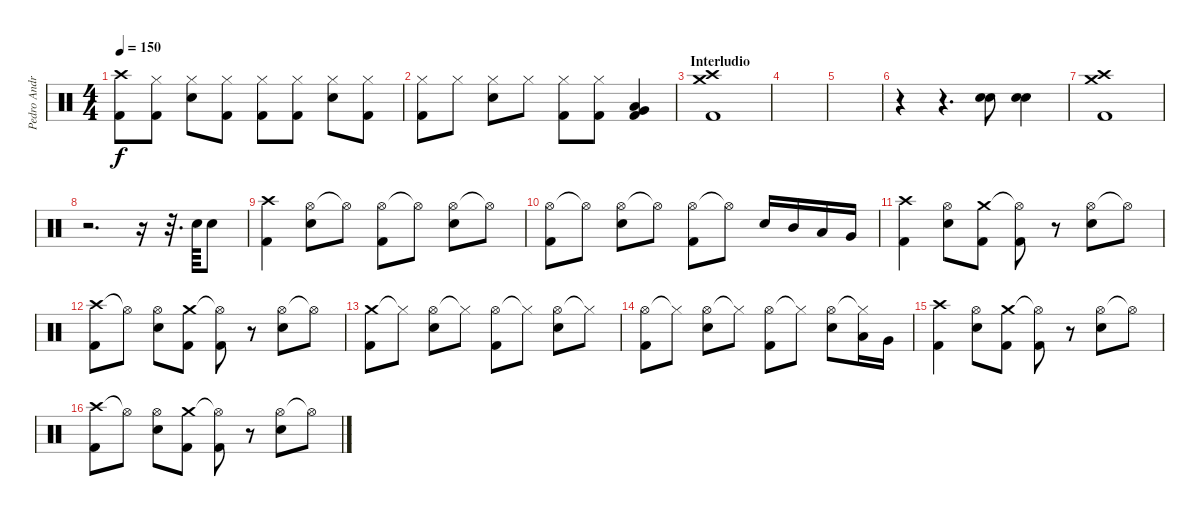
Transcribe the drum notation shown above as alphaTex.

\track ("Pedro Andreu" "Pedro Andr") {instrument percussion}
\staff {score}
\articulation defaults
\ts (4 4)
\tempo 150
\clef neutral
\ks c
("Crash high (hit)" "Kick (hit) 2").8{dy f} ("Hi-Hat (closed)" "Kick (hit) 2").8 ("Hi-Hat (closed)" "Snare (hit) 2").8 ("Hi-Hat (closed)" "Kick (hit) 2").8 ("Hi-Hat (closed)" "Kick (hit) 2").8 ("Hi-Hat (closed)" "Kick (hit) 2").8 ("Hi-Hat (closed)" "Snare (hit) 2").8 ("Hi-Hat (closed)" "Kick (hit) 2").8 |
("Hi-Hat (closed)" "Kick (hit) 2").8 "Hi-Hat (closed)".8 ("Hi-Hat (closed)" "Snare (hit) 2").8 "Hi-Hat (closed)".8 ("Hi-Hat (closed)" "Kick (hit) 2").8 ("Hi-Hat (closed)" "Kick (hit) 2").8 ("Very Low Tom (hit)" "Low Tom (hit)" "Kick (hit) 2").4 |
\section ("" "Interludio")
("Crash high (hit)" "Crash medium (hit)" "Kick (hit) 2").1 |
|
|
r.4 r.4{d} ("Snare (hit) 2" "Snare (hit) 2").8 ("Snare (hit) 2" "Snare (hit) 2").4 |
("Crash medium (hit)" "Crash high (hit)" "Kick (hit) 2").1 |
r.2{d} r.16 r.32{d} "Snare (hit) 2".64 "Snare (hit) 2".8 |
("Crash high (hit)" "Kick (hit) 2").4 ("Hi-Hat (open)" "Snare (hit) 2").8 "Hi-Hat (open)"{t}.8 ("Hi-Hat (open)" "Kick (hit) 2").8 "Hi-Hat (open)"{t}.8 ("Hi-Hat (open)" "Snare (hit) 2").8 "Hi-Hat (open)"{t}.8 |
("Hi-Hat (open)" "Kick (hit) 2").8 "Hi-Hat (open)"{t}.8 ("Hi-Hat (open)" "Snare (hit) 2").8 "Hi-Hat (open)"{t}.8 ("Hi-Hat (open)" "Kick (hit) 2").8 "Hi-Hat (open)"{t}.8 "Snare (hit) 2".16 "Mid Tom (hit)".16 "Low Tom (hit)".16 "Very Low Tom (hit)".16 |
("Crash high (hit)" "Kick (hit) 2").4 ("Hi-Hat (open)" "Snare (hit) 2").8 ("Crash medium (hit)" "Kick (hit) 2").8 ("Hi-Hat (open)"{t} "Kick (hit) 2").8 r.8 ("Hi-Hat (open)" "Snare (hit) 2").8 "Hi-Hat (open)"{t}.8 |
("Crash high (hit)" "Kick (hit) 2").8 "Hi-Hat (open)"{t}.8 ("Hi-Hat (open)" "Snare (hit) 2").8 ("Crash medium (hit)" "Kick (hit) 2").8 ("Hi-Hat (open)"{t} "Kick (hit) 2").8 r.8 ("Hi-Hat (open)" "Snare (hit) 2").8 "Hi-Hat (open)"{t}.8 |
("Crash medium (hit)" "Kick (hit) 2").8 "Hi-Hat (closed)"{t}.8 ("Hi-Hat (open)" "Snare (hit) 2").8 "Hi-Hat (closed)"{t}.8 ("Hi-Hat (open)" "Kick (hit) 2").8 "Hi-Hat (closed)"{t}.8 ("Hi-Hat (open)" "Snare (hit) 2").8 "Hi-Hat (closed)"{t}.8 |
("Hi-Hat (open)" "Kick (hit) 2").8 "Hi-Hat (closed)"{t}.8 ("Hi-Hat (open)" "Snare (hit) 2").8 "Hi-Hat (closed)"{t}.8 ("Hi-Hat (open)" "Kick (hit) 2").8 "Hi-Hat (closed)"{t}.8 ("Hi-Hat (open)" "Snare (hit) 2").8 ("Hi-Hat (closed)"{t} "Low Tom (hit)").16 "Very Low Tom (hit)".16 |
("Crash high (hit)" "Kick (hit) 2").4 ("Hi-Hat (open)" "Snare (hit) 2").8 ("Crash medium (hit)" "Kick (hit) 2").8 ("Hi-Hat (open)"{t} "Kick (hit) 2").8 r.8 ("Hi-Hat (open)" "Snare (hit) 2").8 "Hi-Hat (open)"{t}.8 |
("Crash high (hit)" "Kick (hit) 2").8 "Hi-Hat (open)"{t}.8 ("Hi-Hat (open)" "Snare (hit) 2").8 ("Crash medium (hit)" "Kick (hit) 2").8 ("Hi-Hat (open)"{t} "Kick (hit) 2").8 r.8 ("Hi-Hat (open)" "Snare (hit) 2").8 "Hi-Hat (open)"{t}.8
